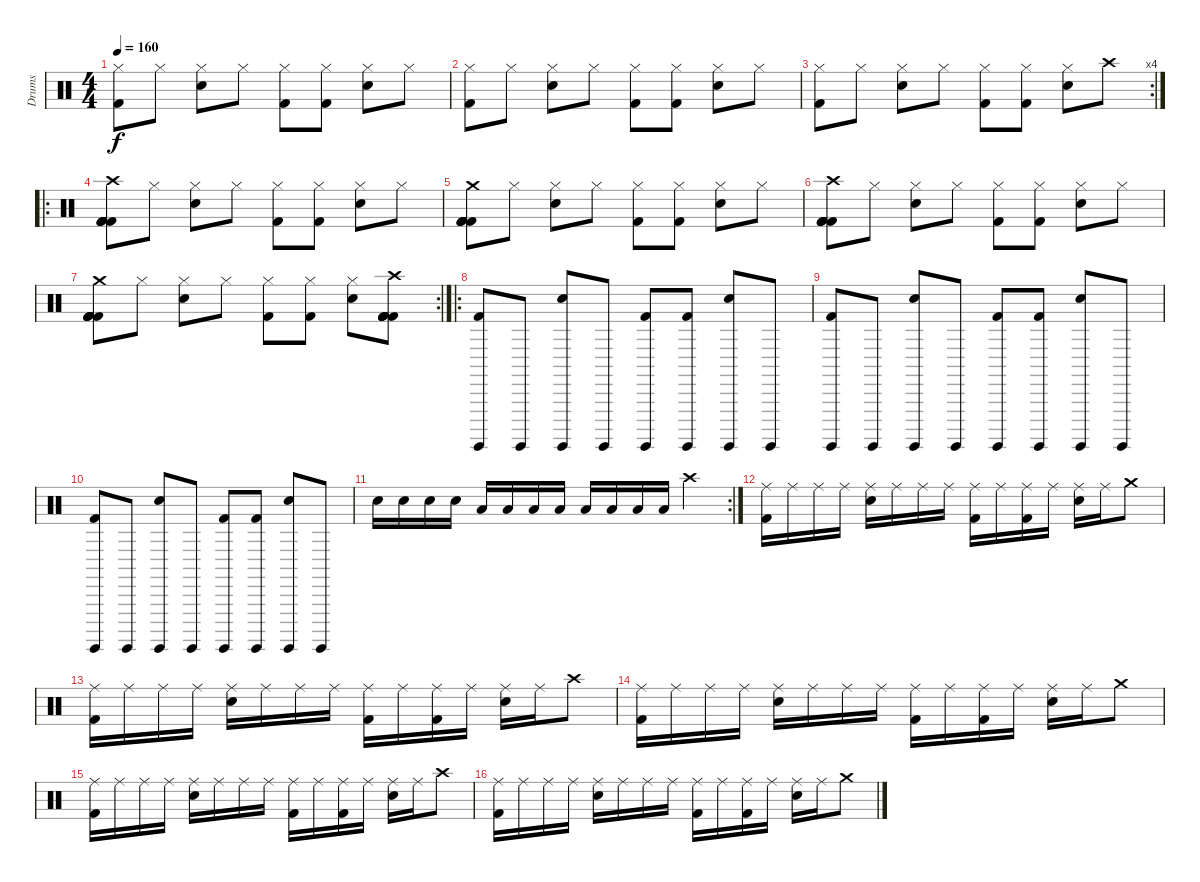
\track ("Drums" "Drums") {instrument percussion}
\staff {score}
\articulation defaults
\ts (4 4)
\tempo 160
\clef neutral
\ks c
("Kick (hit) 2" "Hi-Hat (closed)").8{dy f} "Hi-Hat (closed)".8 ("Snare (hit) 2" "Hi-Hat (closed)").8 "Hi-Hat (closed)".8 ("Kick (hit) 2" "Hi-Hat (closed)").8 ("Kick (hit) 2" "Hi-Hat (closed)").8 ("Snare (hit) 2" "Hi-Hat (closed)").8 "Hi-Hat (closed)".8 |
("Kick (hit) 2" "Hi-Hat (closed)").8 "Hi-Hat (closed)".8 ("Snare (hit) 2" "Hi-Hat (closed)").8 "Hi-Hat (closed)".8 ("Kick (hit) 2" "Hi-Hat (closed)").8 ("Kick (hit) 2" "Hi-Hat (closed)").8 ("Snare (hit) 2" "Hi-Hat (closed)").8 "Hi-Hat (closed)".8 |
\rc 4
("Kick (hit) 2" "Hi-Hat (closed)").8 "Hi-Hat (closed)".8 ("Snare (hit) 2" "Hi-Hat (closed)").8 "Hi-Hat (closed)".8 ("Kick (hit) 2" "Hi-Hat (closed)").8 ("Kick (hit) 2" "Hi-Hat (closed)").8 ("Snare (hit) 2" "Hi-Hat (closed)").8 "Crash high (hit)".8 |
\ro
("Kick (hit) 2" "Crash high (hit)" "Kick (hit) 2" "Kick (hit) 2" "Kick (hit) 2" "Kick (hit) 2").8 "Hi-Hat (closed)".8 ("Snare (hit) 2" "Hi-Hat (closed)").8 "Hi-Hat (closed)".8 ("Kick (hit) 2" "Hi-Hat (closed)").8 ("Kick (hit) 2" "Hi-Hat (closed)").8 ("Snare (hit) 2" "Hi-Hat (closed)").8 "Hi-Hat (closed)".8 |
("Kick (hit) 2" "Crash medium (hit)" "Kick (hit) 2" "Kick (hit) 2" "Kick (hit) 2" "Kick (hit) 2").8 "Hi-Hat (closed)".8 ("Snare (hit) 2" "Hi-Hat (closed)").8 "Hi-Hat (closed)".8 ("Kick (hit) 2" "Hi-Hat (closed)").8 ("Kick (hit) 2" "Hi-Hat (closed)").8 ("Snare (hit) 2" "Hi-Hat (closed)").8 "Hi-Hat (closed)".8 |
("Kick (hit) 2" "Crash high (hit)" "Kick (hit) 2" "Kick (hit) 2" "Kick (hit) 2" "Kick (hit) 2").8 "Hi-Hat (closed)".8 ("Snare (hit) 2" "Hi-Hat (closed)").8 "Hi-Hat (closed)".8 ("Kick (hit) 2" "Hi-Hat (closed)").8 ("Kick (hit) 2" "Hi-Hat (closed)").8 ("Snare (hit) 2" "Hi-Hat (closed)").8 "Hi-Hat (closed)".8 |
\rc 2
("Kick (hit) 2" "Crash medium (hit)" "Kick (hit) 2" "Kick (hit) 2" "Kick (hit) 2" "Kick (hit) 2").8 "Hi-Hat (closed)".8 ("Snare (hit) 2" "Hi-Hat (closed)").8 "Hi-Hat (closed)".8 ("Kick (hit) 2" "Hi-Hat (closed)").8 ("Kick (hit) 2" "Hi-Hat (closed)").8 ("Snare (hit) 2" "Hi-Hat (closed)").8 ("Kick (hit) 2" "Crash high (hit)" "Kick (hit) 2" "Kick (hit) 2" "Kick (hit) 2" "Kick (hit) 2").8 |
\ro
("Kick (hit) 2" "Surdo (hit)").8 "Surdo (hit)".8 ("Snare (hit) 2" "Surdo (hit)").8 "Surdo (hit)".8 ("Kick (hit) 2" "Surdo (hit)").8 ("Kick (hit) 2" "Surdo (hit)").8 ("Snare (hit) 2" "Surdo (hit)").8 "Surdo (hit)".8 |
("Kick (hit) 2" "Surdo (hit)").8 "Surdo (hit)".8 ("Snare (hit) 2" "Surdo (hit)").8 "Surdo (hit)".8 ("Kick (hit) 2" "Surdo (hit)").8 ("Kick (hit) 2" "Surdo (hit)").8 ("Snare (hit) 2" "Surdo (hit)").8 "Surdo (hit)".8 |
("Kick (hit) 2" "Surdo (hit)").8 "Surdo (hit)".8 ("Snare (hit) 2" "Surdo (hit)").8 "Surdo (hit)".8 ("Kick (hit) 2" "Surdo (hit)").8 ("Kick (hit) 2" "Surdo (hit)").8 ("Snare (hit) 2" "Surdo (hit)").8 "Surdo (hit)".8 |
\rc 2 "Snare (hit) 2".16 "Snare (hit) 2".16 "Snare (hit) 2".16 "Snare (hit) 2".16 "Low Tom (hit)".16 "Low Tom (hit)".16 "Low Tom (hit)".16 "Low Tom (hit)".16 "Low Floor Tom (hit)".16 "Low Floor Tom (hit)".16 "Low Floor Tom (hit)".16 "Low Floor Tom (hit)".16 "Crash high (hit)".4
|
("Kick (hit) 2" "Ride (middle)").16 "Ride (middle)".16 "Ride (middle)".16 "Ride (middle)".16 ("Snare (hit) 2" "Ride (middle)").16 "Ride (middle)".16 "Ride (middle)".16 "Ride (middle)".16 ("Kick (hit) 2" "Ride (middle)").16 "Ride (middle)".16 ("Kick (hit) 2" "Ride (middle)").16 "Ride (middle)".16 ("Snare (hit) 2" "Ride (middle)").16 "Ride (middle)".16 "Crash medium (hit)".8 |
("Kick (hit) 2" "Ride (middle)").16 "Ride (middle)".16 "Ride (middle)".16 "Ride (middle)".16 ("Snare (hit) 2" "Ride (middle)").16 "Ride (middle)".16 "Ride (middle)".16 "Ride (middle)".16 ("Kick (hit) 2" "Ride (middle)").16 "Ride (middle)".16 ("Kick (hit) 2" "Ride (middle)").16 "Ride (middle)".16 ("Snare (hit) 2" "Ride (middle)").16 "Ride (middle)".16 "Crash high (hit)".8 |
("Kick (hit) 2" "Ride (middle)").16 "Ride (middle)".16 "Ride (middle)".16 "Ride (middle)".16 ("Snare (hit) 2" "Ride (middle)").16 "Ride (middle)".16 "Ride (middle)".16 "Ride (middle)".16 ("Kick (hit) 2" "Ride (middle)").16 "Ride (middle)".16 ("Kick (hit) 2" "Ride (middle)").16 "Ride (middle)".16 ("Snare (hit) 2" "Ride (middle)").16 "Ride (middle)".16 "Crash medium (hit)".8 |
("Kick (hit) 2" "Ride (middle)").16 "Ride (middle)".16 "Ride (middle)".16 "Ride (middle)".16 ("Snare (hit) 2" "Ride (middle)").16 "Ride (middle)".16 "Ride (middle)".16 "Ride (middle)".16 ("Kick (hit) 2" "Ride (middle)").16 "Ride (middle)".16 ("Kick (hit) 2" "Ride (middle)").16 "Ride (middle)".16 ("Snare (hit) 2" "Ride (middle)").16 "Ride (middle)".16 "Crash high (hit)".8 |
("Kick (hit) 2" "Ride (middle)").16 "Ride (middle)".16 "Ride (middle)".16 "Ride (middle)".16 ("Snare (hit) 2" "Ride (middle)").16 "Ride (middle)".16 "Ride (middle)".16 "Ride (middle)".16 ("Kick (hit) 2" "Ride (middle)").16 "Ride (middle)".16 ("Kick (hit) 2" "Ride (middle)").16 "Ride (middle)".16 ("Snare (hit) 2" "Ride (middle)").16 "Ride (middle)".16 "Crash medium (hit)".8
